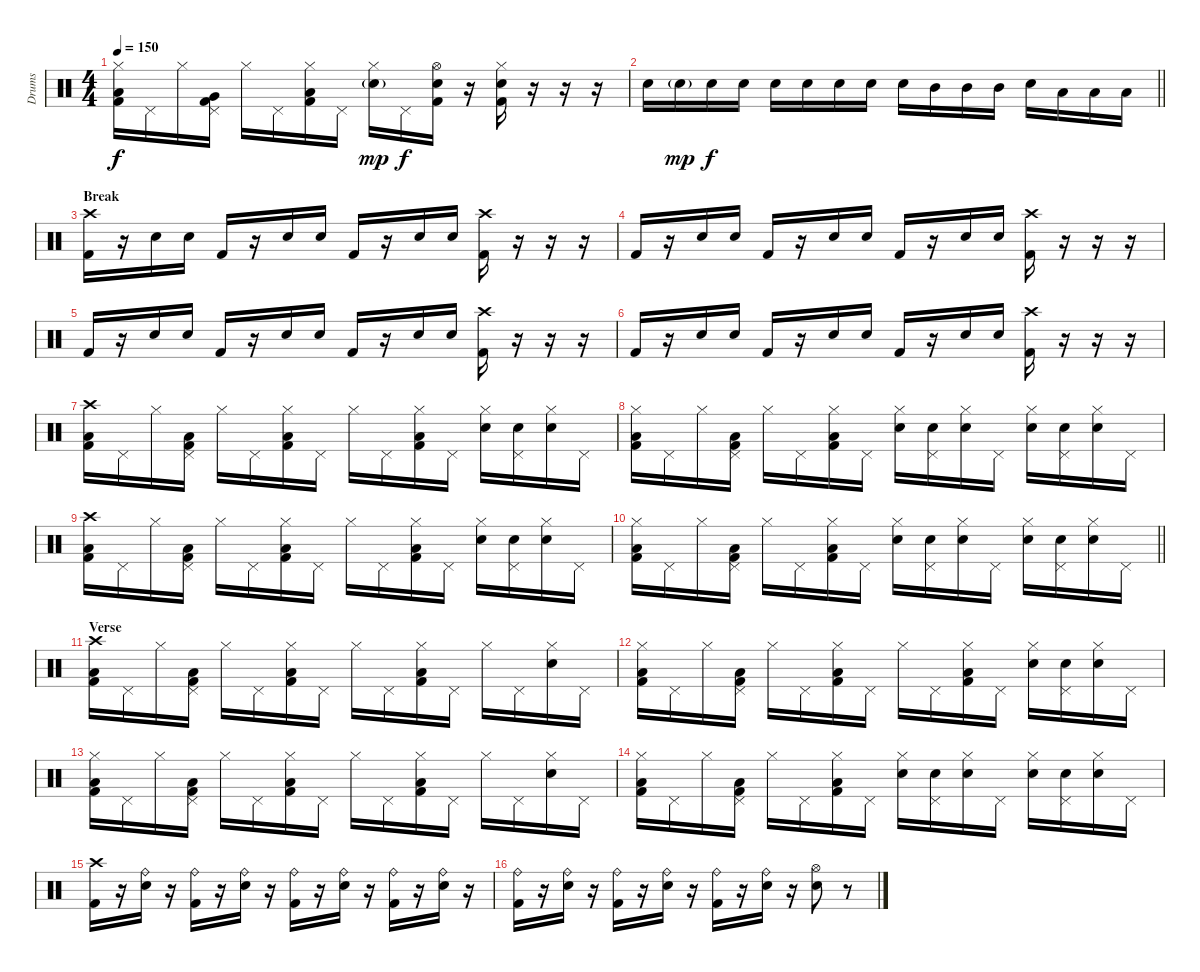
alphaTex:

\track ("Drums" "Drums") {instrument percussion}
\staff {score}
\articulation defaults
\ts (4 4)
\tempo 150
\clef neutral
\ks c
("Hi-Hat (closed)" "Low Tom (hit)" "Kick (hit) 2").16{dy f} "Pedal Hi-Hat (hit)".16 "Hi-Hat (closed)".16 ("Pedal Hi-Hat (hit)" "Very Low Tom (hit)" "Kick (hit) 2").16 "Hi-Hat (closed)".16 "Pedal Hi-Hat (hit)".16 ("Hi-Hat (closed)" "Low Floor Tom (hit)" "Kick (hit) 2").16 "Pedal Hi-Hat (hit)".16 ("Hi-Hat (closed)" "Electric Snare (hit)"{g}).16{dy mp} "Pedal Hi-Hat (hit)".16{dy f} ("Hi-Hat (open)" "Electric Snare (hit)" "Kick (hit) 2").16 r.16 ("Hi-Hat (closed)" "Electric Snare (hit)" "Kick (hit) 2").16 r.16 r.16 r.16 |
\barLineRight lightlight "Electric Snare (hit)".16 "Electric Snare (hit)"{g}.16{dy mp} "Electric Snare (hit)".16{dy f} "Electric Snare (hit)".16 "Electric Snare (hit)".16 "Electric Snare (hit)".16 "Electric Snare (hit)".16 "Electric Snare (hit)".16 "Electric Snare (hit)".16 "Mid Tom (hit)".16 "Mid Tom (hit)".16 "Mid Tom (hit)".16 "Electric Snare (hit)".16 "Low Tom (hit)".16 "Low Tom (hit)".16 "Low Tom (hit)".16
|
\section ("" "Break")
("Crash high (hit)" "Kick (hit) 2").16 r.16 "Electric Snare (hit)".16 "Electric Snare (hit)".16 "Kick (hit) 2".16 r.16 "Electric Snare (hit)".16 "Electric Snare (hit)".16 "Kick (hit) 2".16 r.16 "Electric Snare (hit)".16 "Electric Snare (hit)".16 ("Crash high (hit)" "Kick (hit) 2").16 r.16 r.16 r.16 |
"Kick (hit) 2".16 r.16 "Electric Snare (hit)".16 "Electric Snare (hit)".16 "Kick (hit) 2".16 r.16 "Electric Snare (hit)".16 "Electric Snare (hit)".16 "Kick (hit) 2".16 r.16 "Electric Snare (hit)".16 "Electric Snare (hit)".16 ("Crash high (hit)" "Kick (hit) 2").16 r.16 r.16 r.16 |
"Kick (hit) 2".16 r.16 "Electric Snare (hit)".16 "Electric Snare (hit)".16 "Kick (hit) 2".16 r.16 "Electric Snare (hit)".16 "Electric Snare (hit)".16 "Kick (hit) 2".16 r.16 "Electric Snare (hit)".16 "Electric Snare (hit)".16 ("Crash high (hit)" "Kick (hit) 2").16 r.16 r.16 r.16 |
"Kick (hit) 2".16 r.16 "Electric Snare (hit)".16 "Electric Snare (hit)".16 "Kick (hit) 2".16 r.16 "Electric Snare (hit)".16 "Electric Snare (hit)".16 "Kick (hit) 2".16 r.16 "Electric Snare (hit)".16 "Electric Snare (hit)".16 ("Crash high (hit)" "Kick (hit) 2").16 r.16 r.16 r.16 |
("Crash high (hit)" "Low Floor Tom (hit)" "Kick (hit) 2").16 "Pedal Hi-Hat (hit)".16 "Hi-Hat (closed)".16 ("Pedal Hi-Hat (hit)" "Low Floor Tom (hit)" "Kick (hit) 2").16 "Hi-Hat (closed)".16 "Pedal Hi-Hat (hit)".16 ("Hi-Hat (closed)" "Low Floor Tom (hit)" "Kick (hit) 2").16 "Pedal Hi-Hat (hit)".16 "Hi-Hat (closed)".16 "Pedal Hi-Hat (hit)".16 ("Hi-Hat (closed)" "Low Floor Tom (hit)" "Kick (hit) 2").16 "Pedal Hi-Hat (hit)".16 ("Hi-Hat (closed)" "Electric Snare (hit)").16 ("Pedal Hi-Hat (hit)" "Electric Snare (hit)").16 ("Hi-Hat (closed)" "Electric Snare (hit)").16 "Pedal Hi-Hat (hit)".16 |
("Hi-Hat (closed)" "Low Floor Tom (hit)" "Kick (hit) 2").16 "Pedal Hi-Hat (hit)".16 "Hi-Hat (closed)".16 ("Pedal Hi-Hat (hit)" "Low Floor Tom (hit)" "Kick (hit) 2").16 "Hi-Hat (closed)".16 "Pedal Hi-Hat (hit)".16 ("Hi-Hat (closed)" "Low Floor Tom (hit)" "Kick (hit) 2").16 "Pedal Hi-Hat (hit)".16 ("Hi-Hat (closed)" "Electric Snare (hit)").16 ("Pedal Hi-Hat (hit)" "Electric Snare (hit)").16 ("Hi-Hat (closed)" "Electric Snare (hit)").16 "Pedal Hi-Hat (hit)".16 ("Hi-Hat (closed)" "Electric Snare (hit)").16 ("Pedal Hi-Hat (hit)" "Electric Snare (hit)").16 ("Hi-Hat (closed)" "Electric Snare (hit)").16 "Pedal Hi-Hat (hit)".16 |
("Crash high (hit)" "Low Floor Tom (hit)" "Kick (hit) 2").16 "Pedal Hi-Hat (hit)".16 "Hi-Hat (closed)".16 ("Pedal Hi-Hat (hit)" "Low Floor Tom (hit)" "Kick (hit) 2").16 "Hi-Hat (closed)".16 "Pedal Hi-Hat (hit)".16 ("Hi-Hat (closed)" "Low Floor Tom (hit)" "Kick (hit) 2").16 "Pedal Hi-Hat (hit)".16 "Hi-Hat (closed)".16 "Pedal Hi-Hat (hit)".16 ("Hi-Hat (closed)" "Low Floor Tom (hit)" "Kick (hit) 2").16 "Pedal Hi-Hat (hit)".16 ("Hi-Hat (closed)" "Electric Snare (hit)").16 ("Pedal Hi-Hat (hit)" "Electric Snare (hit)").16 ("Hi-Hat (closed)" "Electric Snare (hit)").16 "Pedal Hi-Hat (hit)".16 |
\barLineRight lightlight
("Hi-Hat (closed)" "Low Floor Tom (hit)" "Kick (hit) 2").16 "Pedal Hi-Hat (hit)".16 "Hi-Hat (closed)".16 ("Pedal Hi-Hat (hit)" "Low Floor Tom (hit)" "Kick (hit) 2").16 "Hi-Hat (closed)".16 "Pedal Hi-Hat (hit)".16 ("Hi-Hat (closed)" "Low Floor Tom (hit)" "Kick (hit) 2").16 "Pedal Hi-Hat (hit)".16 ("Hi-Hat (closed)" "Electric Snare (hit)").16 ("Pedal Hi-Hat (hit)" "Electric Snare (hit)").16 ("Hi-Hat (closed)" "Electric Snare (hit)").16 "Pedal Hi-Hat (hit)".16 ("Hi-Hat (closed)" "Electric Snare (hit)").16 ("Pedal Hi-Hat (hit)" "Electric Snare (hit)").16 ("Hi-Hat (closed)" "Electric Snare (hit)").16 "Pedal Hi-Hat (hit)".16 |
\section ("" "Verse")
("Crash high (hit)" "Low Floor Tom (hit)" "Kick (hit) 2").16 "Pedal Hi-Hat (hit)".16 "Hi-Hat (closed)".16 ("Pedal Hi-Hat (hit)" "Low Floor Tom (hit)" "Kick (hit) 2").16 "Hi-Hat (closed)".16 "Pedal Hi-Hat (hit)".16 ("Hi-Hat (closed)" "Low Floor Tom (hit)" "Kick (hit) 2").16 "Pedal Hi-Hat (hit)".16 "Hi-Hat (closed)".16 "Pedal Hi-Hat (hit)".16 ("Hi-Hat (closed)" "Low Floor Tom (hit)" "Kick (hit) 2").16 "Pedal Hi-Hat (hit)".16 "Hi-Hat (closed)".16 "Pedal Hi-Hat (hit)".16 ("Hi-Hat (closed)" "Electric Snare (hit)").16 "Pedal Hi-Hat (hit)".16 |
("Hi-Hat (closed)" "Low Floor Tom (hit)" "Kick (hit) 2").16 "Pedal Hi-Hat (hit)".16 "Hi-Hat (closed)".16 ("Pedal Hi-Hat (hit)" "Low Floor Tom (hit)" "Kick (hit) 2").16 "Hi-Hat (closed)".16 "Pedal Hi-Hat (hit)".16 ("Hi-Hat (closed)" "Low Floor Tom (hit)" "Kick (hit) 2").16 "Pedal Hi-Hat (hit)".16 "Hi-Hat (closed)".16 "Pedal Hi-Hat (hit)".16 ("Hi-Hat (closed)" "Low Floor Tom (hit)" "Kick (hit) 2").16 "Pedal Hi-Hat (hit)".16 ("Hi-Hat (closed)" "Electric Snare (hit)").16 ("Pedal Hi-Hat (hit)" "Electric Snare (hit)").16 ("Hi-Hat (closed)" "Electric Snare (hit)").16 "Pedal Hi-Hat (hit)".16 |
("Hi-Hat (closed)" "Low Floor Tom (hit)" "Kick (hit) 2").16 "Pedal Hi-Hat (hit)".16 "Hi-Hat (closed)".16 ("Pedal Hi-Hat (hit)" "Low Floor Tom (hit)" "Kick (hit) 2").16 "Hi-Hat (closed)".16 "Pedal Hi-Hat (hit)".16 ("Hi-Hat (closed)" "Low Floor Tom (hit)" "Kick (hit) 2").16 "Pedal Hi-Hat (hit)".16 "Hi-Hat (closed)".16 "Pedal Hi-Hat (hit)".16 ("Hi-Hat (closed)" "Low Floor Tom (hit)" "Kick (hit) 2").16 "Pedal Hi-Hat (hit)".16 "Hi-Hat (closed)".16 "Pedal Hi-Hat (hit)".16 ("Hi-Hat (closed)" "Electric Snare (hit)").16 "Pedal Hi-Hat (hit)".16 |
("Hi-Hat (closed)" "Low Floor Tom (hit)" "Kick (hit) 2").16 "Pedal Hi-Hat (hit)".16 "Hi-Hat (closed)".16 ("Pedal Hi-Hat (hit)" "Low Floor Tom (hit)" "Kick (hit) 2").16 "Hi-Hat (closed)".16 "Pedal Hi-Hat (hit)".16 ("Hi-Hat (closed)" "Low Floor Tom (hit)" "Kick (hit) 2").16 "Pedal Hi-Hat (hit)".16 ("Hi-Hat (closed)" "Electric Snare (hit)").16 ("Pedal Hi-Hat (hit)" "Electric Snare (hit)").16 ("Hi-Hat (closed)" "Electric Snare (hit)").16 "Pedal Hi-Hat (hit)".16 ("Hi-Hat (closed)" "Electric Snare (hit)").16 ("Pedal Hi-Hat (hit)" "Electric Snare (hit)").16 ("Hi-Hat (closed)" "Electric Snare (hit)").16 "Pedal Hi-Hat (hit)".16 |
("Crash high (hit)" "Kick (hit) 2").16 r.16 ("Ride (bell)" "Electric Snare (hit)").16 r.16 ("Ride (bell)" "Kick (hit) 2").16 r.16 ("Ride (bell)" "Electric Snare (hit)").16 r.16 ("Ride (bell)" "Kick (hit) 2").16 r.16 ("Ride (bell)" "Electric Snare (hit)").16 r.16 ("Ride (bell)" "Kick (hit) 2").16 r.16 ("Ride (bell)" "Electric Snare (hit)").16 r.16 |
("Ride (bell)" "Kick (hit) 2").16 r.16 ("Ride (bell)" "Electric Snare (hit)").16 r.16 ("Ride (bell)" "Kick (hit) 2").16 r.16 ("Ride (bell)" "Electric Snare (hit)").16 r.16 ("Ride (bell)" "Kick (hit) 2").16 r.16 ("Ride (bell)" "Electric Snare (hit)").16 r.16 ("Hi-Hat (open)" "Electric Snare (hit)").8 r.8
